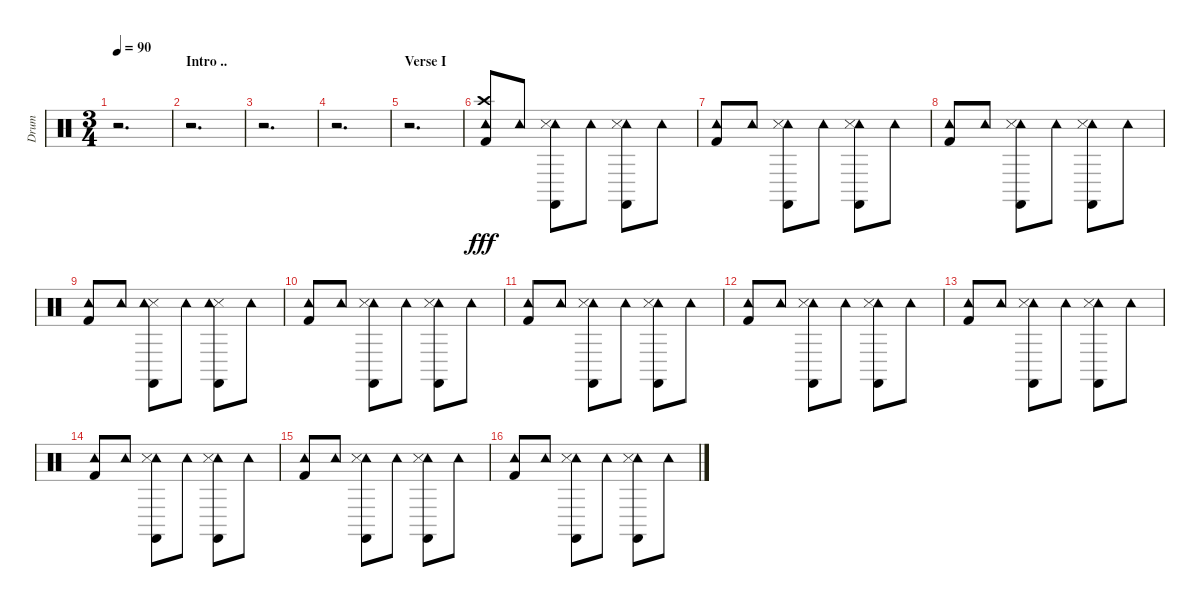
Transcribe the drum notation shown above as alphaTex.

\track ("Drum" "Drum") {instrument percussion}
\staff {score}
\articulation defaults
\ts (3 4)
\tempo 90
\clef neutral
\ks c
r.2{d dy fff} |
\section ("" "Intro ..")
r.2{d} |
r.2{d} |
r.2{d} |
\section ("" "Verse I")
r.2{d} |
("Kick (hit) 2" "Crash high (hit)" "Tambourine (hit)").8 "Tambourine (hit)".8 ("Castanets (hit)" "Tambourine (hit)" "Snare (side stick) 3").8 "Tambourine (hit)".8 ("Castanets (hit)" "Tambourine (hit)" "Snare (side stick) 3").8 "Tambourine (hit)".8 |
("Kick (hit) 2" "Tambourine (hit)").8 "Tambourine (hit)".8 ("Castanets (hit)" "Tambourine (hit)" "Snare (side stick) 3").8 "Tambourine (hit)".8 ("Castanets (hit)" "Tambourine (hit)" "Snare (side stick) 3").8 "Tambourine (hit)".8 |
("Kick (hit) 2" "Tambourine (hit)").8 "Tambourine (hit)".8 ("Castanets (hit)" "Tambourine (hit)" "Snare (side stick) 3").8 "Tambourine (hit)".8 ("Castanets (hit)" "Tambourine (hit)" "Snare (side stick) 3").8 "Tambourine (hit)".8 |
("Kick (hit) 2" "Tambourine (hit)").8 "Tambourine (hit)".8 ("Snare (side stick) 3" "Castanets (hit)" "Tambourine (hit)").8 "Tambourine (hit)".8 ("Snare (side stick) 3" "Castanets (hit)" "Tambourine (hit)").8 "Tambourine (hit)".8 |
("Kick (hit) 2" "Tambourine (hit)").8 "Tambourine (hit)".8 ("Castanets (hit)" "Tambourine (hit)" "Snare (side stick) 3").8 "Tambourine (hit)".8 ("Castanets (hit)" "Tambourine (hit)" "Snare (side stick) 3").8 "Tambourine (hit)".8 |
("Kick (hit) 2" "Tambourine (hit)").8 "Tambourine (hit)".8 ("Castanets (hit)" "Tambourine (hit)" "Snare (side stick) 3").8 "Tambourine (hit)".8 ("Castanets (hit)" "Tambourine (hit)" "Snare (side stick) 3").8 "Tambourine (hit)".8 |
("Kick (hit) 2" "Tambourine (hit)").8 "Tambourine (hit)".8 ("Castanets (hit)" "Tambourine (hit)" "Snare (side stick) 3").8 "Tambourine (hit)".8 ("Castanets (hit)" "Tambourine (hit)" "Snare (side stick) 3").8 "Tambourine (hit)".8 |
("Kick (hit) 2" "Tambourine (hit)").8 "Tambourine (hit)".8 ("Castanets (hit)" "Tambourine (hit)" "Snare (side stick) 3").8 "Tambourine (hit)".8 ("Castanets (hit)" "Tambourine (hit)" "Snare (side stick) 3").8 "Tambourine (hit)".8 |
("Kick (hit) 2" "Tambourine (hit)").8 "Tambourine (hit)".8 ("Castanets (hit)" "Tambourine (hit)" "Snare (side stick) 3").8 "Tambourine (hit)".8 ("Castanets (hit)" "Tambourine (hit)" "Snare (side stick) 3").8 "Tambourine (hit)".8 |
("Kick (hit) 2" "Tambourine (hit)").8 "Tambourine (hit)".8 ("Castanets (hit)" "Tambourine (hit)" "Snare (side stick) 3").8 "Tambourine (hit)".8 ("Castanets (hit)" "Tambourine (hit)" "Snare (side stick) 3").8 "Tambourine (hit)".8 |
("Kick (hit) 2" "Tambourine (hit)").8 "Tambourine (hit)".8 ("Castanets (hit)" "Tambourine (hit)" "Snare (side stick) 3").8 "Tambourine (hit)".8 ("Castanets (hit)" "Tambourine (hit)" "Snare (side stick) 3").8 "Tambourine (hit)".8
